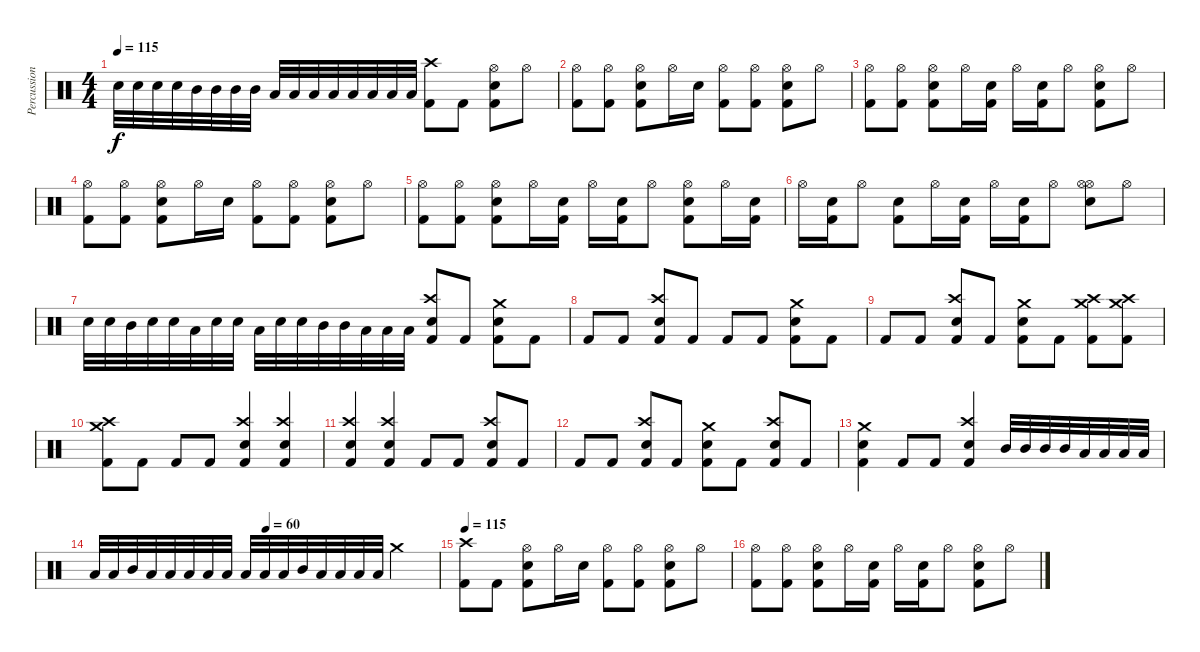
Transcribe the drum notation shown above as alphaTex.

\track ("Percussion" "Percussion") {instrument percussion}
\staff {score}
\articulation defaults
\ts (4 4)
\tempo 115
\clef neutral
\ks c "Snare (hit) 2".32{dy f} "Snare (hit) 2".32 "Snare (hit) 2".32 "Snare (hit) 2".32 "Mid Tom (hit)".32 "Mid Tom (hit)".32 "Mid Tom (hit)".32 "Mid Tom (hit)".32 "Low Tom (hit)".32 "Low Tom (hit)".32 "Low Tom (hit)".32 "Low Tom (hit)".32 "Low Floor Tom (hit)".32 "Low Floor Tom (hit)".32 "Low Floor Tom (hit)".32 "Low Floor Tom (hit)".32
("Crash high (hit)" "Kick (hit) 2").8 "Kick (hit) 2".8 ("Hi-Hat (open)" "Kick (hit) 2" "Snare (hit) 2").8 "Hi-Hat (open)".8 |
("Hi-Hat (open)" "Kick (hit) 2").8 ("Hi-Hat (open)" "Kick (hit) 2").8 ("Hi-Hat (open)" "Kick (hit) 2" "Snare (hit) 2").8 "Hi-Hat (open)".16 "Snare (hit) 2".16 ("Hi-Hat (open)" "Kick (hit) 2").8 ("Hi-Hat (open)" "Kick (hit) 2").8 ("Hi-Hat (open)" "Kick (hit) 2" "Snare (hit) 2").8 "Hi-Hat (open)".8 |
("Hi-Hat (open)" "Kick (hit) 2").8 ("Hi-Hat (open)" "Kick (hit) 2").8 ("Hi-Hat (open)" "Kick (hit) 2" "Snare (hit) 2").8 "Hi-Hat (open)".16 ("Kick (hit) 2" "Snare (hit) 2").16 "Hi-Hat (open)".16 ("Kick (hit) 2" "Snare (hit) 2").16 "Hi-Hat (open)".8 ("Hi-Hat (open)" "Kick (hit) 2" "Snare (hit) 2").8 "Hi-Hat (open)".8 |
("Hi-Hat (open)" "Kick (hit) 2").8 ("Hi-Hat (open)" "Kick (hit) 2").8 ("Hi-Hat (open)" "Kick (hit) 2" "Snare (hit) 2").8 "Hi-Hat (open)".16 "Snare (hit) 2".16 ("Hi-Hat (open)" "Kick (hit) 2").8 ("Hi-Hat (open)" "Kick (hit) 2").8 ("Hi-Hat (open)" "Kick (hit) 2" "Snare (hit) 2").8 "Hi-Hat (open)".8 |
("Hi-Hat (open)" "Kick (hit) 2").8 ("Hi-Hat (open)" "Kick (hit) 2").8 ("Hi-Hat (open)" "Kick (hit) 2" "Snare (hit) 2").8 "Hi-Hat (open)".16 ("Kick (hit) 2" "Snare (hit) 2").16 "Hi-Hat (open)".16 ("Kick (hit) 2" "Snare (hit) 2").16 "Hi-Hat (open)".8 ("Hi-Hat (open)" "Kick (hit) 2" "Snare (hit) 2").8 "Hi-Hat (open)".16 ("Kick (hit) 2" "Snare (hit) 2").16 |
"Hi-Hat (open)".16 ("Kick (hit) 2" "Snare (hit) 2").16 "Hi-Hat (open)".8 ("Kick (hit) 2" "Snare (hit) 2").8 "Hi-Hat (open)".16 ("Kick (hit) 2" "Snare (hit) 2").16 "Hi-Hat (open)".16 ("Kick (hit) 2" "Snare (hit) 2").16 "Hi-Hat (open)".8 ("Hi-Hat (open)" "Hi-Hat (open)" "Snare (hit) 2").8 "Hi-Hat (open)".8 |
"Snare (hit) 2".32 "Snare (hit) 2".32 "Mid Tom (hit)".32 "Snare (hit) 2".32 "Snare (hit) 2".32 "Low Tom (hit)".32 "Snare (hit) 2".32 "Snare (hit) 2".32 "Low Floor Tom (hit)".32 "Snare (hit) 2".32 "Snare (hit) 2".32 "Mid Tom (hit)".32 "Mid Tom (hit)".32 "Low Tom (hit)".32 "Low Tom (hit)".32 "Low Floor Tom (hit)".32 ("Crash high (hit)" "Kick (hit) 2" "Snare (hit) 2").8 "Kick (hit) 2".8 ("Crash medium (hit)" "Kick (hit) 2" "Snare (hit) 2").8 "Kick (hit) 2".8 |
"Kick (hit) 2".8 "Kick (hit) 2".8 ("Crash high (hit)" "Kick (hit) 2" "Snare (hit) 2").8 "Kick (hit) 2".8 "Kick (hit) 2".8 "Kick (hit) 2".8 ("Crash medium (hit)" "Kick (hit) 2" "Snare (hit) 2").8 "Kick (hit) 2".8 |
"Kick (hit) 2".8 "Kick (hit) 2".8 ("Crash high (hit)" "Kick (hit) 2" "Snare (hit) 2").8 "Kick (hit) 2".8 ("Crash medium (hit)" "Kick (hit) 2" "Snare (hit) 2").8 "Kick (hit) 2".8 ("Crash medium (hit)" "Crash high (hit)" "Kick (hit) 2").8 ("Crash medium (hit)" "Crash high (hit)" "Kick (hit) 2").8 |
("Crash medium (hit)" "Crash high (hit)" "Kick (hit) 2").8 "Kick (hit) 2".8 "Kick (hit) 2".8 "Kick (hit) 2".8 ("Crash high (hit)" "Kick (hit) 2" "Snare (hit) 2").4 ("Crash high (hit)" "Kick (hit) 2" "Snare (hit) 2").4 |
("Crash high (hit)" "Kick (hit) 2" "Snare (hit) 2").4 ("Crash high (hit)" "Kick (hit) 2" "Snare (hit) 2").4 "Kick (hit) 2".8 "Kick (hit) 2".8 ("Crash high (hit)" "Kick (hit) 2" "Snare (hit) 2").8 "Kick (hit) 2".8 |
"Kick (hit) 2".8 "Kick (hit) 2".8 ("Crash high (hit)" "Kick (hit) 2" "Snare (hit) 2").8 "Kick (hit) 2".8 ("Crash medium (hit)" "Kick (hit) 2" "Snare (hit) 2").8 "Kick (hit) 2".8 ("Crash high (hit)" "Kick (hit) 2" "Snare (hit) 2").8 "Kick (hit) 2".8 |
("Crash medium (hit)" "Kick (hit) 2" "Snare (hit) 2").4 "Kick (hit) 2".8 "Kick (hit) 2".8 ("Crash high (hit)" "Kick (hit) 2" "Snare (hit) 2").4 "Mid Tom (hit)".32 "Mid Tom (hit)".32 "Mid Tom (hit)".32 "Mid Tom (hit)".32 "Low Tom (hit)".32 "Low Tom (hit)".32 "Low Tom (hit)".32 "Low Tom (hit)".32 |
\tempo (60 0.5)
"Low Floor Tom (hit)".32 "Low Floor Tom (hit)".32 "Mid Tom (hit)".32 "Low Floor Tom (hit)".32 "Low Floor Tom (hit)".32 "Low Tom (hit)".32 "Low Floor Tom (hit)".32 "Low Floor Tom (hit)".32 "Low Floor Tom (hit)".32 "Low Floor Tom (hit)".32 "Low Floor Tom (hit)".32 "Mid Tom (hit)".32 "Low Floor Tom (hit)".32 "Low Floor Tom (hit)".32 "Low Tom (hit)".32 "Low Floor Tom (hit)".32 "Crash medium (hit)".2 |
\tempo 115
("Crash high (hit)" "Kick (hit) 2").8 "Kick (hit) 2".8 ("Hi-Hat (open)" "Kick (hit) 2" "Snare (hit) 2").8 "Hi-Hat (open)".16 "Snare (hit) 2".16 ("Hi-Hat (open)" "Kick (hit) 2").8 ("Hi-Hat (open)" "Kick (hit) 2").8 ("Hi-Hat (open)" "Kick (hit) 2" "Snare (hit) 2").8 "Hi-Hat (open)".8 |
("Hi-Hat (open)" "Kick (hit) 2").8 ("Hi-Hat (open)" "Kick (hit) 2").8 ("Hi-Hat (open)" "Kick (hit) 2" "Snare (hit) 2").8 "Hi-Hat (open)".16 ("Kick (hit) 2" "Snare (hit) 2").16 "Hi-Hat (open)".16 ("Kick (hit) 2" "Snare (hit) 2").16 "Hi-Hat (open)".8 ("Hi-Hat (open)" "Kick (hit) 2" "Snare (hit) 2").8 "Hi-Hat (open)".8
